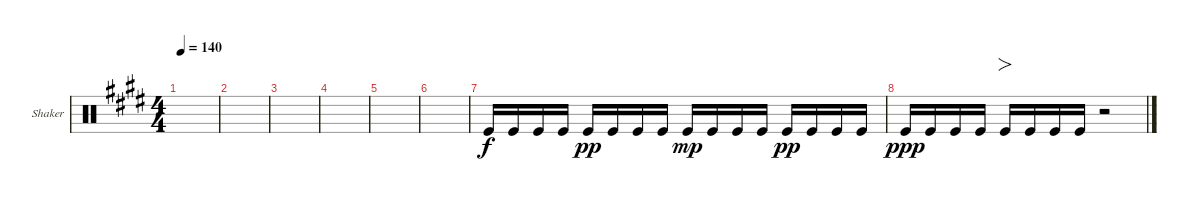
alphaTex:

\defaultSystemsLayout 4
\bracketExtendMode groupsimilarinstruments
\firstSystemTrackNameOrientation horizontal
\otherSystemsTrackNameOrientation horizontal
\track ("Shaker" "Shaker") {instrument percussion}
\staff {score}
\articulation defaults
\ts (4 4)
\tempo 140
\clef neutral
\scale
0.333333
\ks e
|
\scale
0.333333 |
\scale
0.333333 |
\scale
0.333333 |
|
|
"Kick (hit)".16 "Kick (hit)".16 "Kick (hit)".16 "Kick (hit)".16 "Kick (hit)".16{dy pp} "Kick (hit)".16 "Kick (hit)".16 "Kick (hit)".16 "Kick (hit)".16{dy mp} "Kick (hit)".16 "Kick (hit)".16 "Kick (hit)".16 "Kick (hit)".16{dy pp} "Kick (hit)".16 "Kick (hit)".16 "Kick (hit)".16 |
"Kick (hit)".16{dy ppp} "Kick (hit)".16 "Kick (hit)".16 "Kick (hit)".16 "Kick (hit)".16{fo} "Kick (hit)".16 "Kick (hit)".16 "Kick (hit)".16 r.2
